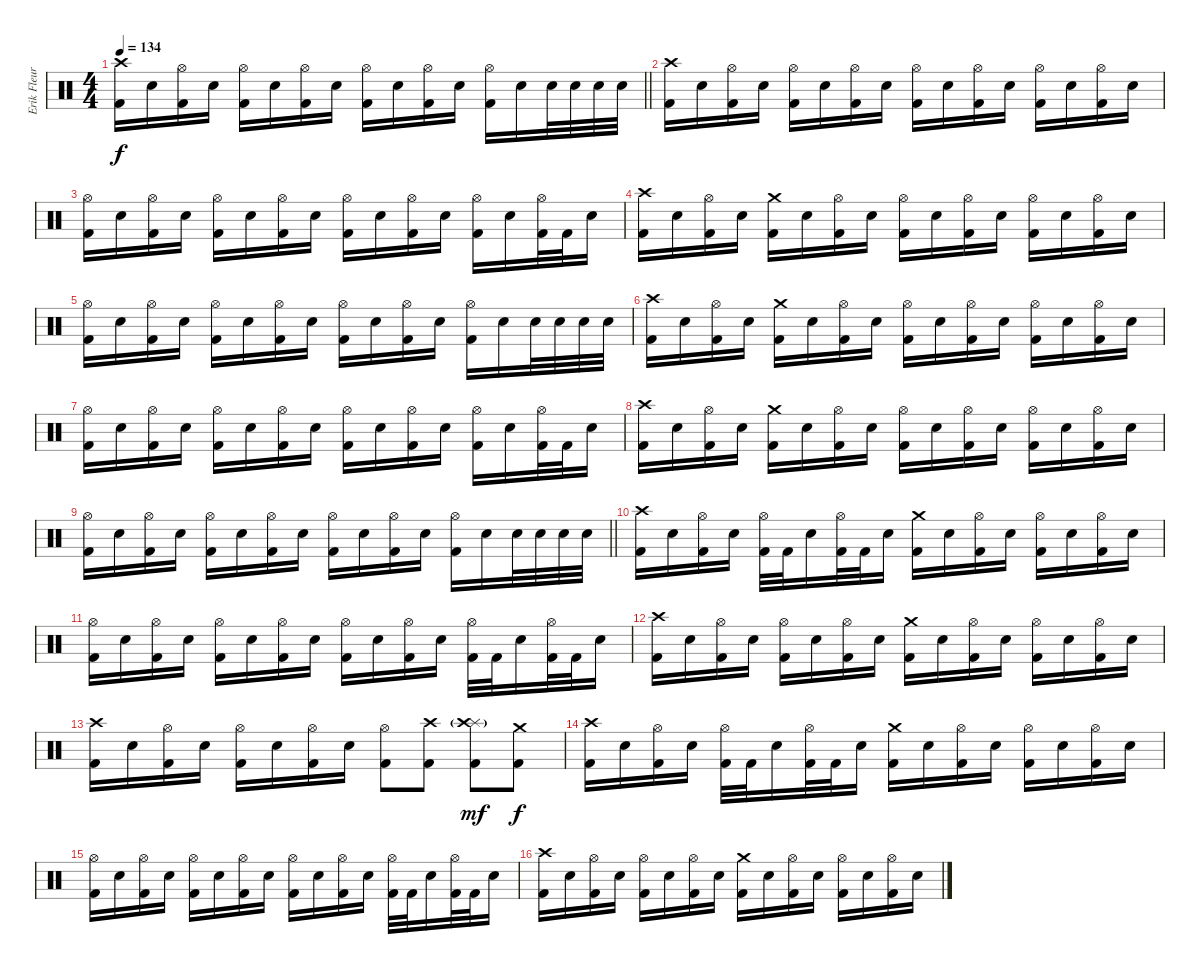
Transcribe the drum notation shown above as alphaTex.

\track ("Erik Fleuren" "Erik Fleur") {instrument percussion}
\staff {score}
\articulation defaults
\ts (4 4)
\tempo 134
\clef neutral
\barLineRight lightlight
\ks c
("Crash high (hit)" "Kick (hit) 2").16{dy f} "Electric Snare (hit)".16 ("Hi-Hat (open)" "Kick (hit) 2").16 "Electric Snare (hit)".16 ("Hi-Hat (open)" "Kick (hit) 2").16 "Electric Snare (hit)".16 ("Hi-Hat (open)" "Kick (hit) 2").16 "Electric Snare (hit)".16 ("Hi-Hat (open)" "Kick (hit) 2").16 "Electric Snare (hit)".16 ("Hi-Hat (open)" "Kick (hit) 2").16 "Electric Snare (hit)".16 ("Hi-Hat (open)" "Kick (hit) 2").16 "Electric Snare (hit)".16 "Electric Snare (hit)".32 "Electric Snare (hit)".32 "Electric Snare (hit)".32 "Electric Snare (hit)".32 |
("Crash high (hit)" "Kick (hit) 2").16 "Electric Snare (hit)".16 ("Hi-Hat (open)" "Kick (hit) 2").16 "Electric Snare (hit)".16 ("Hi-Hat (open)" "Kick (hit) 2").16 "Electric Snare (hit)".16 ("Hi-Hat (open)" "Kick (hit) 2").16 "Electric Snare (hit)".16 ("Hi-Hat (open)" "Kick (hit) 2").16 "Electric Snare (hit)".16 ("Hi-Hat (open)" "Kick (hit) 2").16 "Electric Snare (hit)".16 ("Hi-Hat (open)" "Kick (hit) 2").16 "Electric Snare (hit)".16 ("Hi-Hat (open)" "Kick (hit) 2").16 "Electric Snare (hit)".16 |
("Hi-Hat (open)" "Kick (hit) 2").16 "Electric Snare (hit)".16 ("Hi-Hat (open)" "Kick (hit) 2").16 "Electric Snare (hit)".16 ("Hi-Hat (open)" "Kick (hit) 2").16 "Electric Snare (hit)".16 ("Hi-Hat (open)" "Kick (hit) 2").16 "Electric Snare (hit)".16 ("Hi-Hat (open)" "Kick (hit) 2").16 "Electric Snare (hit)".16 ("Hi-Hat (open)" "Kick (hit) 2").16 "Electric Snare (hit)".16 ("Hi-Hat (open)" "Kick (hit) 2").16 "Electric Snare (hit)".16 ("Hi-Hat (open)" "Kick (hit) 2").32 "Kick (hit) 2".32 "Electric Snare (hit)".16 |
("Crash high (hit)" "Kick (hit) 2").16 "Electric Snare (hit)".16 ("Hi-Hat (open)" "Kick (hit) 2").16 "Electric Snare (hit)".16 ("Crash medium (hit)" "Kick (hit) 2").16 "Electric Snare (hit)".16 ("Hi-Hat (open)" "Kick (hit) 2").16 "Electric Snare (hit)".16 ("Hi-Hat (open)" "Kick (hit) 2").16 "Electric Snare (hit)".16 ("Hi-Hat (open)" "Kick (hit) 2").16 "Electric Snare (hit)".16 ("Hi-Hat (open)" "Kick (hit) 2").16 "Electric Snare (hit)".16 ("Hi-Hat (open)" "Kick (hit) 2").16 "Electric Snare (hit)".16 |
("Hi-Hat (open)" "Kick (hit) 2").16 "Electric Snare (hit)".16 ("Hi-Hat (open)" "Kick (hit) 2").16 "Electric Snare (hit)".16 ("Hi-Hat (open)" "Kick (hit) 2").16 "Electric Snare (hit)".16 ("Hi-Hat (open)" "Kick (hit) 2").16 "Electric Snare (hit)".16 ("Hi-Hat (open)" "Kick (hit) 2").16 "Electric Snare (hit)".16 ("Hi-Hat (open)" "Kick (hit) 2").16 "Electric Snare (hit)".16 ("Hi-Hat (open)" "Kick (hit) 2").16 "Electric Snare (hit)".16 "Electric Snare (hit)".32 "Electric Snare (hit)".32 "Electric Snare (hit)".32 "Electric Snare (hit)".32 |
("Crash high (hit)" "Kick (hit) 2").16 "Electric Snare (hit)".16 ("Hi-Hat (open)" "Kick (hit) 2").16 "Electric Snare (hit)".16 ("Crash medium (hit)" "Kick (hit) 2").16 "Electric Snare (hit)".16 ("Hi-Hat (open)" "Kick (hit) 2").16 "Electric Snare (hit)".16 ("Hi-Hat (open)" "Kick (hit) 2").16 "Electric Snare (hit)".16 ("Hi-Hat (open)" "Kick (hit) 2").16 "Electric Snare (hit)".16 ("Hi-Hat (open)" "Kick (hit) 2").16 "Electric Snare (hit)".16 ("Hi-Hat (open)" "Kick (hit) 2").16 "Electric Snare (hit)".16 |
("Hi-Hat (open)" "Kick (hit) 2").16 "Electric Snare (hit)".16 ("Hi-Hat (open)" "Kick (hit) 2").16 "Electric Snare (hit)".16 ("Hi-Hat (open)" "Kick (hit) 2").16 "Electric Snare (hit)".16 ("Hi-Hat (open)" "Kick (hit) 2").16 "Electric Snare (hit)".16 ("Hi-Hat (open)" "Kick (hit) 2").16 "Electric Snare (hit)".16 ("Hi-Hat (open)" "Kick (hit) 2").16 "Electric Snare (hit)".16 ("Hi-Hat (open)" "Kick (hit) 2").16 "Electric Snare (hit)".16 ("Hi-Hat (open)" "Kick (hit) 2").32 "Kick (hit) 2".32 "Electric Snare (hit)".16 |
("Crash high (hit)" "Kick (hit) 2").16 "Electric Snare (hit)".16 ("Hi-Hat (open)" "Kick (hit) 2").16 "Electric Snare (hit)".16 ("Crash medium (hit)" "Kick (hit) 2").16 "Electric Snare (hit)".16 ("Hi-Hat (open)" "Kick (hit) 2").16 "Electric Snare (hit)".16 ("Hi-Hat (open)" "Kick (hit) 2").16 "Electric Snare (hit)".16 ("Hi-Hat (open)" "Kick (hit) 2").16 "Electric Snare (hit)".16 ("Hi-Hat (open)" "Kick (hit) 2").16 "Electric Snare (hit)".16 ("Hi-Hat (open)" "Kick (hit) 2").16 "Electric Snare (hit)".16 |
\barLineRight lightlight
("Hi-Hat (open)" "Kick (hit) 2").16 "Electric Snare (hit)".16 ("Hi-Hat (open)" "Kick (hit) 2").16 "Electric Snare (hit)".16 ("Hi-Hat (open)" "Kick (hit) 2").16 "Electric Snare (hit)".16 ("Hi-Hat (open)" "Kick (hit) 2").16 "Electric Snare (hit)".16 ("Hi-Hat (open)" "Kick (hit) 2").16 "Electric Snare (hit)".16 ("Hi-Hat (open)" "Kick (hit) 2").16 "Electric Snare (hit)".16 ("Hi-Hat (open)" "Kick (hit) 2").16 "Electric Snare (hit)".16 "Electric Snare (hit)".32 "Electric Snare (hit)".32 "Electric Snare (hit)".32 "Electric Snare (hit)".32 |
("Crash high (hit)" "Kick (hit) 2").16 "Electric Snare (hit)".16 ("Hi-Hat (open)" "Kick (hit) 2").16 "Electric Snare (hit)".16 ("Hi-Hat (open)" "Kick (hit) 2").32 "Kick (hit) 2".32 "Electric Snare (hit)".16 ("Hi-Hat (open)" "Kick (hit) 2").32 "Kick (hit) 2".32 "Electric Snare (hit)".16 ("Crash medium (hit)" "Kick (hit) 2").16 "Electric Snare (hit)".16 ("Hi-Hat (open)" "Kick (hit) 2").16 "Electric Snare (hit)".16 ("Hi-Hat (open)" "Kick (hit) 2").16 "Electric Snare (hit)".16 ("Hi-Hat (open)" "Kick (hit) 2").16 "Electric Snare (hit)".16 |
("Hi-Hat (open)" "Kick (hit) 2").16 "Electric Snare (hit)".16 ("Hi-Hat (open)" "Kick (hit) 2").16 "Electric Snare (hit)".16 ("Hi-Hat (open)" "Kick (hit) 2").16 "Electric Snare (hit)".16 ("Hi-Hat (open)" "Kick (hit) 2").16 "Electric Snare (hit)".16 ("Hi-Hat (open)" "Kick (hit) 2").16 "Electric Snare (hit)".16 ("Hi-Hat (open)" "Kick (hit) 2").16 "Electric Snare (hit)".16 ("Hi-Hat (open)" "Kick (hit) 2").32 "Kick (hit) 2".32 "Electric Snare (hit)".16 ("Hi-Hat (open)" "Kick (hit) 2").32 "Kick (hit) 2".32 "Electric Snare (hit)".16 |
("Crash high (hit)" "Kick (hit) 2").16 "Electric Snare (hit)".16 ("Hi-Hat (open)" "Kick (hit) 2").16 "Electric Snare (hit)".16 ("Hi-Hat (open)" "Kick (hit) 2").16 "Electric Snare (hit)".16 ("Hi-Hat (open)" "Kick (hit) 2").16 "Electric Snare (hit)".16 ("Crash medium (hit)" "Kick (hit) 2").16 "Electric Snare (hit)".16 ("Hi-Hat (open)" "Kick (hit) 2").16 "Electric Snare (hit)".16 ("Hi-Hat (open)" "Kick (hit) 2").16 "Electric Snare (hit)".16 ("Hi-Hat (open)" "Kick (hit) 2").16 "Electric Snare (hit)".16 |
("Crash high (hit)" "Kick (hit) 2").16 "Electric Snare (hit)".16 ("Hi-Hat (open)" "Kick (hit) 2").16 "Electric Snare (hit)".16 ("Hi-Hat (open)" "Kick (hit) 2").16 "Electric Snare (hit)".16 ("Hi-Hat (open)" "Kick (hit) 2").16 "Electric Snare (hit)".16 ("Hi-Hat (open)" "Kick (hit) 2").8 ("Crash high (hit)" "Kick (hit) 2").8 ("Splash (hit)"{g} "Crash high (hit)" "Kick (hit) 2").8{dy mf} ("Crash medium (hit)" "Kick (hit) 2").8{dy f} |
("Crash high (hit)" "Kick (hit) 2").16 "Electric Snare (hit)".16 ("Hi-Hat (open)" "Kick (hit) 2").16 "Electric Snare (hit)".16 ("Hi-Hat (open)" "Kick (hit) 2").32 "Kick (hit) 2".32 "Electric Snare (hit)".16 ("Hi-Hat (open)" "Kick (hit) 2").32 "Kick (hit) 2".32 "Electric Snare (hit)".16 ("Crash medium (hit)" "Kick (hit) 2").16 "Electric Snare (hit)".16 ("Hi-Hat (open)" "Kick (hit) 2").16 "Electric Snare (hit)".16 ("Hi-Hat (open)" "Kick (hit) 2").16 "Electric Snare (hit)".16 ("Hi-Hat (open)" "Kick (hit) 2").16 "Electric Snare (hit)".16 |
("Hi-Hat (open)" "Kick (hit) 2").16 "Electric Snare (hit)".16 ("Hi-Hat (open)" "Kick (hit) 2").16 "Electric Snare (hit)".16 ("Hi-Hat (open)" "Kick (hit) 2").16 "Electric Snare (hit)".16 ("Hi-Hat (open)" "Kick (hit) 2").16 "Electric Snare (hit)".16 ("Hi-Hat (open)" "Kick (hit) 2").16 "Electric Snare (hit)".16 ("Hi-Hat (open)" "Kick (hit) 2").16 "Electric Snare (hit)".16 ("Hi-Hat (open)" "Kick (hit) 2").32 "Kick (hit) 2".32 "Electric Snare (hit)".16 ("Hi-Hat (open)" "Kick (hit) 2").32 "Kick (hit) 2".32 "Electric Snare (hit)".16 |
("Crash high (hit)" "Kick (hit) 2").16 "Electric Snare (hit)".16 ("Hi-Hat (open)" "Kick (hit) 2").16 "Electric Snare (hit)".16 ("Hi-Hat (open)" "Kick (hit) 2").16 "Electric Snare (hit)".16 ("Hi-Hat (open)" "Kick (hit) 2").16 "Electric Snare (hit)".16 ("Crash medium (hit)" "Kick (hit) 2").16 "Electric Snare (hit)".16 ("Hi-Hat (open)" "Kick (hit) 2").16 "Electric Snare (hit)".16 ("Hi-Hat (open)" "Kick (hit) 2").16 "Electric Snare (hit)".16 ("Hi-Hat (open)" "Kick (hit) 2").16 "Electric Snare (hit)".16
